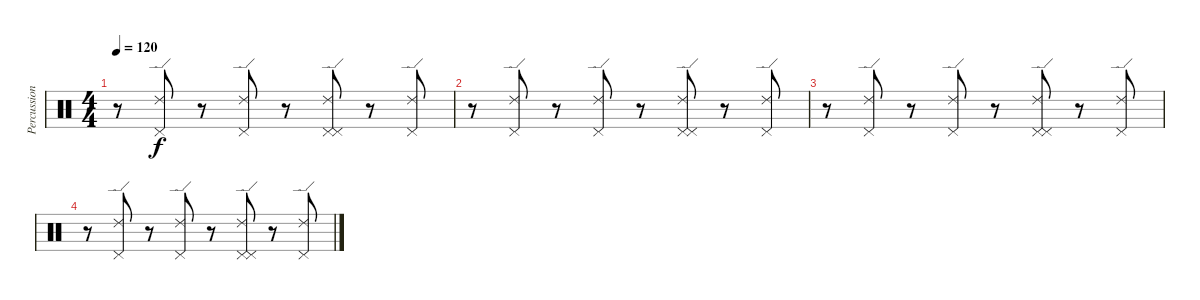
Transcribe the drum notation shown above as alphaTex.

\track ("Percussion" "Percussion") {instrument percussion}
\staff {score}
\articulation defaults
\ts (4 4)
\tempo 120
\clef neutral
\ks c
r.8{dy f} ("Pedal Hi-Hat (hit)" "Ride (edge) 2").8 r.8 ("Pedal Hi-Hat (hit)" "Ride (edge) 2").8 r.8 ("Pedal Hi-Hat (hit)" "Pedal Hi-Hat (hit)" "Ride (edge) 2").8 r.8 ("Pedal Hi-Hat (hit)" "Ride (edge) 2").8 |
r.8 ("Pedal Hi-Hat (hit)" "Ride (edge) 2").8 r.8 ("Pedal Hi-Hat (hit)" "Ride (edge) 2").8 r.8 ("Pedal Hi-Hat (hit)" "Pedal Hi-Hat (hit)" "Ride (edge) 2").8 r.8 ("Pedal Hi-Hat (hit)" "Ride (edge) 2").8 |
r.8 ("Pedal Hi-Hat (hit)" "Ride (edge) 2").8 r.8 ("Pedal Hi-Hat (hit)" "Ride (edge) 2").8 r.8 ("Pedal Hi-Hat (hit)" "Pedal Hi-Hat (hit)" "Ride (edge) 2").8 r.8 ("Pedal Hi-Hat (hit)" "Ride (edge) 2").8 |
r.8 ("Pedal Hi-Hat (hit)" "Ride (edge) 2").8 r.8 ("Pedal Hi-Hat (hit)" "Ride (edge) 2").8 r.8 ("Pedal Hi-Hat (hit)" "Pedal Hi-Hat (hit)" "Ride (edge) 2").8 r.8 ("Pedal Hi-Hat (hit)" "Ride (edge) 2").8
